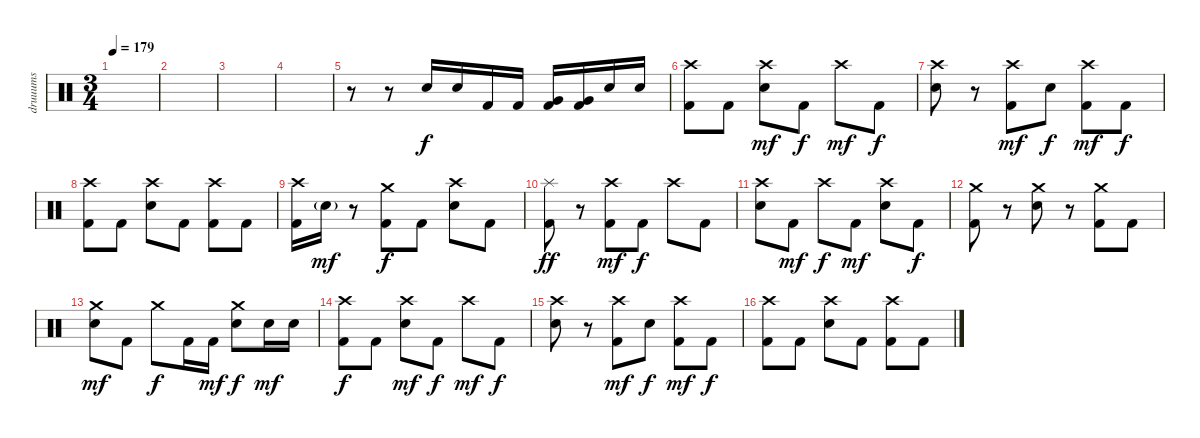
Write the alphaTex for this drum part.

\track ("druuums" "druuums") {instrument percussion}
\staff {score}
\articulation defaults
\ts (3 4)
\tempo 179
\clef neutral
\ks c
|
|
|
|
r.8 r.8 "Electric Snare (hit)".16 "Electric Snare (hit)".16 "Kick (hit) 2".16 "Kick (hit) 2".16 ("Very Low Tom (hit)" "Kick (hit) 2").16 ("Very Low Tom (hit)" "Kick (hit) 2").16 "Electric Snare (hit)".16 "Electric Snare (hit)".16 |
("Crash high (hit)" "Kick (hit) 2").8 "Kick (hit) 2".8 ("Crash high (hit)" "Electric Snare (hit)").8{dy mf} "Kick (hit) 2".8{dy f} "Crash high (hit)".8{dy mf} "Kick (hit) 2".8{dy f} |
("Crash high (hit)" "Electric Snare (hit)").8 r.8 ("Crash high (hit)" "Kick (hit) 2").8{dy mf} "Electric Snare (hit)".8{dy f} ("Crash high (hit)" "Kick (hit) 2").8{dy mf} "Kick (hit) 2".8{dy f} |
("Crash high (hit)" "Kick (hit) 2").8 "Kick (hit) 2".8 ("Crash high (hit)" "Electric Snare (hit)").8 "Kick (hit) 2".8 ("Crash high (hit)" "Kick (hit) 2").8 "Kick (hit) 2".8 |
("Crash high (hit)" "Kick (hit) 2").16 "Electric Snare (hit)"{g}.16{dy mf} r.8 ("Crash medium (hit)" "Kick (hit) 2").8{dy f} "Kick (hit) 2".8 ("Crash high (hit)" "Electric Snare (hit)").8 "Kick (hit) 2".8 |
("Splash (hit)" "Kick (hit) 2").8{dy ff} r.8 ("Crash high (hit)" "Kick (hit) 2").8{dy mf} "Kick (hit) 2".8{dy f} "Crash high (hit)".8 "Kick (hit) 2".8 |
("Crash high (hit)" "Electric Snare (hit)").8 "Kick (hit) 2".8{dy mf} "Crash high (hit)".8{dy f} "Kick (hit) 2".8{dy mf} ("Crash high (hit)" "Electric Snare (hit)").8 "Kick (hit) 2".8{dy f} |
("Crash medium (hit)" "Kick (hit) 2").8 r.8 ("Crash medium (hit)" "Electric Snare (hit)").8 r.8 ("Crash medium (hit)" "Kick (hit) 2").8 "Kick (hit) 2".8 |
("Crash medium (hit)" "Electric Snare (hit)").8{dy mf} "Kick (hit) 2".8 "Crash medium (hit)".8{dy f} "Kick (hit) 2".16 "Kick (hit) 2".16{dy mf} ("Crash medium (hit)" "Electric Snare (hit)").8{dy f} "Electric Snare (hit)".16{dy mf} "Electric Snare (hit)".16 |
("Crash high (hit)" "Kick (hit) 2").8{dy f} "Kick (hit) 2".8 ("Crash high (hit)" "Electric Snare (hit)").8{dy mf} "Kick (hit) 2".8{dy f} "Crash high (hit)".8{dy mf} "Kick (hit) 2".8{dy f} |
("Crash high (hit)" "Electric Snare (hit)").8 r.8 ("Crash high (hit)" "Kick (hit) 2").8{dy mf} "Electric Snare (hit)".8{dy f} ("Crash high (hit)" "Kick (hit) 2").8{dy mf} "Kick (hit) 2".8{dy f} |
("Crash high (hit)" "Kick (hit) 2").8 "Kick (hit) 2".8 ("Crash high (hit)" "Electric Snare (hit)").8 "Kick (hit) 2".8 ("Crash high (hit)" "Kick (hit) 2").8 "Kick (hit) 2".8
